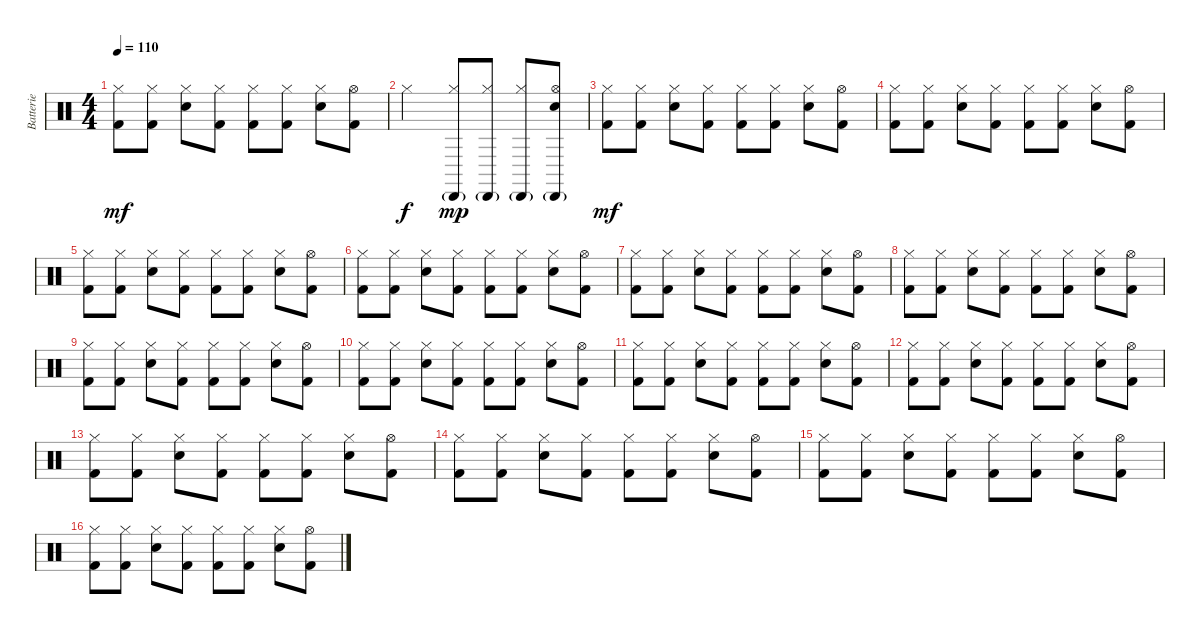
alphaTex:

\track ("Batterie" "Batterie") {instrument percussion}
\staff {score}
\articulation defaults
\ts (4 4)
\tempo 110
\clef neutral
\ks c
("Hi-Hat (closed)" "Kick (hit) 2").8{dy mf} ("Hi-Hat (closed)" "Kick (hit) 2").8 ("Hi-Hat (closed)" "Electric Snare (hit)").8 ("Hi-Hat (closed)" "Kick (hit) 2").8 ("Hi-Hat (closed)" "Kick (hit) 2").8 ("Hi-Hat (closed)" "Kick (hit) 2").8 ("Hi-Hat (closed)" "Electric Snare (hit)").8 ("Hi-Hat (open)" "Kick (hit) 2").8 |
"Hi-Hat (closed)".2{dy f} ("Hi-Hat (closed)" "Cabasa (hit)"{g}).8{dy mp} ("Hi-Hat (closed)" "Cabasa (hit)"{g}).8 ("Hi-Hat (closed)" "Cabasa (hit)"{g}).8 ("Hi-Hat (open)" "Cabasa (hit)"{g} "Electric Snare (hit)").8 |
("Hi-Hat (closed)" "Kick (hit) 2").8{dy mf} ("Hi-Hat (closed)" "Kick (hit) 2").8 ("Hi-Hat (closed)" "Electric Snare (hit)").8 ("Hi-Hat (closed)" "Kick (hit) 2").8 ("Hi-Hat (closed)" "Kick (hit) 2").8 ("Hi-Hat (closed)" "Kick (hit) 2").8 ("Hi-Hat (closed)" "Electric Snare (hit)").8 ("Hi-Hat (open)" "Kick (hit) 2").8 |
("Hi-Hat (closed)" "Kick (hit) 2").8 ("Hi-Hat (closed)" "Kick (hit) 2").8 ("Hi-Hat (closed)" "Electric Snare (hit)").8 ("Hi-Hat (closed)" "Kick (hit) 2").8 ("Hi-Hat (closed)" "Kick (hit) 2").8 ("Hi-Hat (closed)" "Kick (hit) 2").8 ("Hi-Hat (closed)" "Electric Snare (hit)").8 ("Hi-Hat (open)" "Kick (hit) 2").8 |
("Hi-Hat (closed)" "Kick (hit) 2").8 ("Hi-Hat (closed)" "Kick (hit) 2").8 ("Hi-Hat (closed)" "Electric Snare (hit)").8 ("Hi-Hat (closed)" "Kick (hit) 2").8 ("Hi-Hat (closed)" "Kick (hit) 2").8 ("Hi-Hat (closed)" "Kick (hit) 2").8 ("Hi-Hat (closed)" "Electric Snare (hit)").8 ("Hi-Hat (open)" "Kick (hit) 2").8 |
("Hi-Hat (closed)" "Kick (hit) 2").8 ("Hi-Hat (closed)" "Kick (hit) 2").8 ("Hi-Hat (closed)" "Electric Snare (hit)").8 ("Hi-Hat (closed)" "Kick (hit) 2").8 ("Hi-Hat (closed)" "Kick (hit) 2").8 ("Hi-Hat (closed)" "Kick (hit) 2").8 ("Hi-Hat (closed)" "Electric Snare (hit)").8 ("Hi-Hat (open)" "Kick (hit) 2").8 |
("Hi-Hat (closed)" "Kick (hit) 2").8 ("Hi-Hat (closed)" "Kick (hit) 2").8 ("Hi-Hat (closed)" "Electric Snare (hit)").8 ("Hi-Hat (closed)" "Kick (hit) 2").8 ("Hi-Hat (closed)" "Kick (hit) 2").8 ("Hi-Hat (closed)" "Kick (hit) 2").8 ("Hi-Hat (closed)" "Electric Snare (hit)").8 ("Hi-Hat (open)" "Kick (hit) 2").8 |
("Hi-Hat (closed)" "Kick (hit) 2").8 ("Hi-Hat (closed)" "Kick (hit) 2").8 ("Hi-Hat (closed)" "Electric Snare (hit)").8 ("Hi-Hat (closed)" "Kick (hit) 2").8 ("Hi-Hat (closed)" "Kick (hit) 2").8 ("Hi-Hat (closed)" "Kick (hit) 2").8 ("Hi-Hat (closed)" "Electric Snare (hit)").8 ("Hi-Hat (open)" "Kick (hit) 2").8 |
("Hi-Hat (closed)" "Kick (hit) 2").8 ("Hi-Hat (closed)" "Kick (hit) 2").8 ("Hi-Hat (closed)" "Electric Snare (hit)").8 ("Hi-Hat (closed)" "Kick (hit) 2").8 ("Hi-Hat (closed)" "Kick (hit) 2").8 ("Hi-Hat (closed)" "Kick (hit) 2").8 ("Hi-Hat (closed)" "Electric Snare (hit)").8 ("Hi-Hat (open)" "Kick (hit) 2").8 |
("Hi-Hat (closed)" "Kick (hit) 2").8 ("Hi-Hat (closed)" "Kick (hit) 2").8 ("Hi-Hat (closed)" "Electric Snare (hit)").8 ("Hi-Hat (closed)" "Kick (hit) 2").8 ("Hi-Hat (closed)" "Kick (hit) 2").8 ("Hi-Hat (closed)" "Kick (hit) 2").8 ("Hi-Hat (closed)" "Electric Snare (hit)").8 ("Hi-Hat (open)" "Kick (hit) 2").8 |
("Hi-Hat (closed)" "Kick (hit) 2").8 ("Hi-Hat (closed)" "Kick (hit) 2").8 ("Hi-Hat (closed)" "Electric Snare (hit)").8 ("Hi-Hat (closed)" "Kick (hit) 2").8 ("Hi-Hat (closed)" "Kick (hit) 2").8 ("Hi-Hat (closed)" "Kick (hit) 2").8 ("Hi-Hat (closed)" "Electric Snare (hit)").8 ("Hi-Hat (open)" "Kick (hit) 2").8 |
("Hi-Hat (closed)" "Kick (hit) 2").8 ("Hi-Hat (closed)" "Kick (hit) 2").8 ("Hi-Hat (closed)" "Electric Snare (hit)").8 ("Hi-Hat (closed)" "Kick (hit) 2").8 ("Hi-Hat (closed)" "Kick (hit) 2").8 ("Hi-Hat (closed)" "Kick (hit) 2").8 ("Hi-Hat (closed)" "Electric Snare (hit)").8 ("Hi-Hat (open)" "Kick (hit) 2").8 |
("Hi-Hat (closed)" "Kick (hit) 2").8 ("Hi-Hat (closed)" "Kick (hit) 2").8 ("Hi-Hat (closed)" "Electric Snare (hit)").8 ("Hi-Hat (closed)" "Kick (hit) 2").8 ("Hi-Hat (closed)" "Kick (hit) 2").8 ("Hi-Hat (closed)" "Kick (hit) 2").8 ("Hi-Hat (closed)" "Electric Snare (hit)").8 ("Hi-Hat (open)" "Kick (hit) 2").8 |
("Hi-Hat (closed)" "Kick (hit) 2").8 ("Hi-Hat (closed)" "Kick (hit) 2").8 ("Hi-Hat (closed)" "Electric Snare (hit)").8 ("Hi-Hat (closed)" "Kick (hit) 2").8 ("Hi-Hat (closed)" "Kick (hit) 2").8 ("Hi-Hat (closed)" "Kick (hit) 2").8 ("Hi-Hat (closed)" "Electric Snare (hit)").8 ("Hi-Hat (open)" "Kick (hit) 2").8 |
("Hi-Hat (closed)" "Kick (hit) 2").8 ("Hi-Hat (closed)" "Kick (hit) 2").8 ("Hi-Hat (closed)" "Electric Snare (hit)").8 ("Hi-Hat (closed)" "Kick (hit) 2").8 ("Hi-Hat (closed)" "Kick (hit) 2").8 ("Hi-Hat (closed)" "Kick (hit) 2").8 ("Hi-Hat (closed)" "Electric Snare (hit)").8 ("Hi-Hat (open)" "Kick (hit) 2").8 |
("Hi-Hat (closed)" "Kick (hit) 2").8 ("Hi-Hat (closed)" "Kick (hit) 2").8 ("Hi-Hat (closed)" "Electric Snare (hit)").8 ("Hi-Hat (closed)" "Kick (hit) 2").8 ("Hi-Hat (closed)" "Kick (hit) 2").8 ("Hi-Hat (closed)" "Kick (hit) 2").8 ("Hi-Hat (closed)" "Electric Snare (hit)").8 ("Hi-Hat (open)" "Kick (hit) 2").8
